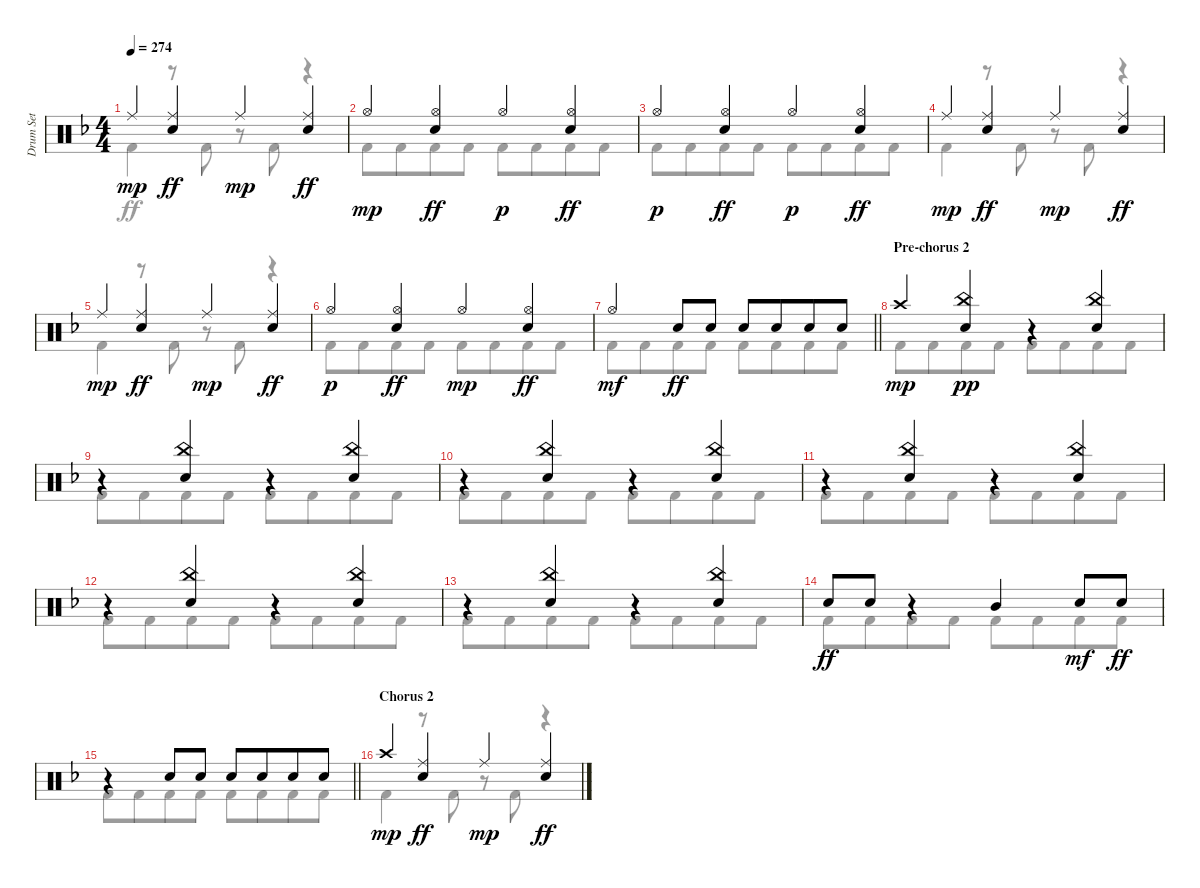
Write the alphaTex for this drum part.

\track ("Drum Set" "Drum Set") {instrument percussion}
\staff {score}
\articulation defaults
\voice
\ts (4 4)
\tempo 274
\clef neutral
\ks dminor "Ride (middle)".4{dy mp}
("Ride (middle)" "Electric Snare (hit)").4{dy ff} "Ride (middle)".4{dy mp} ("Ride (middle)" "Electric Snare (hit)").4{dy ff} |
"Hi-Hat (open)".4{dy mp} ("Hi-Hat (open)" "Electric Snare (hit)").4{dy ff} "Hi-Hat (open)".4{dy p} ("Hi-Hat (open)" "Electric Snare (hit)").4{dy ff} |
"Hi-Hat (open)".4{dy p} ("Hi-Hat (open)" "Electric Snare (hit)").4{dy ff} "Hi-Hat (open)".4{dy p} ("Hi-Hat (open)" "Electric Snare (hit)").4{dy ff} |
"Ride (middle)".4{dy mp} ("Ride (middle)" "Electric Snare (hit)").4{dy ff} "Ride (middle)".4{dy mp} ("Ride (middle)" "Electric Snare (hit)").4{dy ff} |
"Ride (middle)".4{dy mp} ("Ride (middle)" "Electric Snare (hit)").4{dy ff} "Ride (middle)".4{dy mp} ("Ride (middle)" "Electric Snare (hit)").4{dy ff} |
"Hi-Hat (open)".4{dy p} ("Hi-Hat (open)" "Electric Snare (hit)").4{dy ff} "Hi-Hat (open)".4{dy mp} ("Hi-Hat (open)" "Electric Snare (hit)").4{dy ff} |
\barLineRight lightlight "Hi-Hat (open)".4{dy mf} "Electric Snare (hit)".8{dy ff} "Electric Snare (hit)".8 "Electric Snare (hit)".8 "Electric Snare (hit)".8{beam merge} "Electric Snare (hit)".8 "Electric Snare (hit)".8
|
\section ("" "Pre-chorus 2")
"Crash high (hit)".4{dy mp} ("Electric Snare (hit)" "China (hit)").4{dy pp} r.4 ("Electric Snare (hit)" "China (hit)").4 |
r.4 ("Electric Snare (hit)" "China (hit)").4 r.4 ("Electric Snare (hit)" "China (hit)").4 |
r.4 ("Electric Snare (hit)" "China (hit)").4 r.4 ("Electric Snare (hit)" "China (hit)").4 |
r.4 ("Electric Snare (hit)" "China (hit)").4 r.4 ("Electric Snare (hit)" "China (hit)").4 |
r.4 ("Electric Snare (hit)" "China (hit)").4 r.4 ("Electric Snare (hit)" "China (hit)").4 |
r.4 ("Electric Snare (hit)" "China (hit)").4 r.4 ("Electric Snare (hit)" "China (hit)").4 |
"Electric Snare (hit)".8{dy ff} "Electric Snare (hit)".8 r.4 "Mid Tom (hit)".4 "Electric Snare (hit)".8{dy mf} "Electric Snare (hit)".8{dy ff} |
\barLineRight lightlight
r.4 "Electric Snare (hit)".8 "Electric Snare (hit)".8 "Electric Snare (hit)".8 "Electric Snare (hit)".8{beam merge} "Electric Snare (hit)".8 "Electric Snare (hit)".8 |
\section ("" "Chorus 2")
"Crash high (hit)".4{dy mp} ("Ride (middle)" "Electric Snare (hit)").4{dy ff} "Ride (middle)".4{dy mp} ("Ride (middle)" "Electric Snare (hit)").4{dy ff}
\voice
\clef neutral
\ottava regular
\simile none
\ks dminor "Kick (hit) 2".4{dy ff}
r.8 "Kick (hit) 2".8 r.8 "Kick (hit) 2".8 r.4 |
"Kick (hit) 2".8 "Kick (hit) 2".8{beam merge} "Kick (hit) 2".8 "Kick (hit) 2".8 "Kick (hit) 2".8 "Kick (hit) 2".8{beam merge} "Kick (hit) 2".8 "Kick (hit) 2".8 |
"Kick (hit) 2".8 "Kick (hit) 2".8{beam merge} "Kick (hit) 2".8 "Kick (hit) 2".8 "Kick (hit) 2".8 "Kick (hit) 2".8{beam merge} "Kick (hit) 2".8 "Kick (hit) 2".8 |
"Kick (hit) 2".4 r.8 "Kick (hit) 2".8 r.8 "Kick (hit) 2".8 r.4 |
"Kick (hit) 2".4 r.8 "Kick (hit) 2".8 r.8 "Kick (hit) 2".8 r.4 |
"Kick (hit) 2".8 "Kick (hit) 2".8{beam merge} "Kick (hit) 2".8 "Kick (hit) 2".8 "Kick (hit) 2".8 "Kick (hit) 2".8{beam merge} "Kick (hit) 2".8 "Kick (hit) 2".8 |
\barLineRight lightlight "Kick (hit) 2".8 "Kick (hit) 2".8{beam merge} "Kick (hit) 2".8 "Kick (hit) 2".8 "Kick (hit) 2".8 "Kick (hit) 2".8{beam merge} "Kick (hit) 2".8 "Kick (hit) 2".8
|
"Kick (hit) 2".8 "Kick (hit) 2".8{beam merge} "Kick (hit) 2".8 "Kick (hit) 2".8 "Kick (hit) 2".8 "Kick (hit) 2".8{beam merge} "Kick (hit) 2".8 "Kick (hit) 2".8 |
"Kick (hit) 2".8 "Kick (hit) 2".8{beam merge} "Kick (hit) 2".8 "Kick (hit) 2".8 "Kick (hit) 2".8 "Kick (hit) 2".8{beam merge} "Kick (hit) 2".8 "Kick (hit) 2".8 |
"Kick (hit) 2".8 "Kick (hit) 2".8{beam merge} "Kick (hit) 2".8 "Kick (hit) 2".8 "Kick (hit) 2".8 "Kick (hit) 2".8{beam merge} "Kick (hit) 2".8 "Kick (hit) 2".8 |
"Kick (hit) 2".8 "Kick (hit) 2".8{beam merge} "Kick (hit) 2".8 "Kick (hit) 2".8 "Kick (hit) 2".8 "Kick (hit) 2".8{beam merge} "Kick (hit) 2".8 "Kick (hit) 2".8 |
"Kick (hit) 2".8 "Kick (hit) 2".8{beam merge} "Kick (hit) 2".8 "Kick (hit) 2".8 "Kick (hit) 2".8 "Kick (hit) 2".8{beam merge} "Kick (hit) 2".8 "Kick (hit) 2".8 |
"Kick (hit) 2".8 "Kick (hit) 2".8{beam merge} "Kick (hit) 2".8 "Kick (hit) 2".8 "Kick (hit) 2".8 "Kick (hit) 2".8{beam merge} "Kick (hit) 2".8 "Kick (hit) 2".8 |
"Kick (hit) 2".8 "Kick (hit) 2".8{beam merge} "Kick (hit) 2".8 "Kick (hit) 2".8 "Kick (hit) 2".8 "Kick (hit) 2".8{beam merge} "Kick (hit) 2".8 "Kick (hit) 2".8 |
\barLineRight lightlight "Kick (hit) 2".8 "Kick (hit) 2".8{beam merge} "Kick (hit) 2".8 "Kick (hit) 2".8 "Kick (hit) 2".8 "Kick (hit) 2".8{beam merge} "Kick (hit) 2".8 "Kick (hit) 2".8
|
"Kick (hit) 2".4 r.8 "Kick (hit) 2".8 r.8 "Kick (hit) 2".8 r.4
